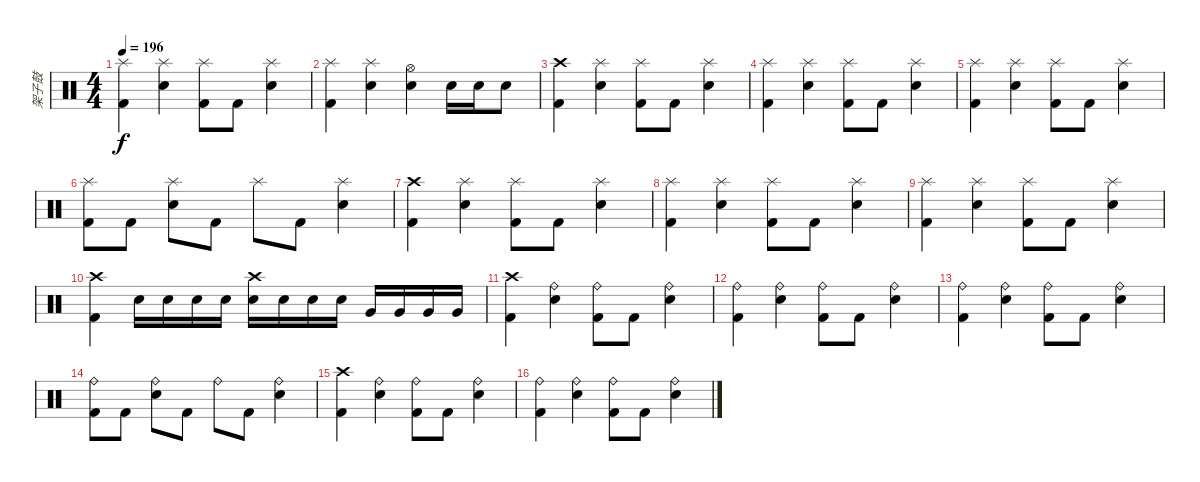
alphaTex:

\track ("架子鼓" "架子鼓") {instrument percussion}
\staff {score}
\articulation defaults
\ts (4 4)
\tempo 196
\clef neutral
\ks c
("Splash (hit)" "Kick (hit) 2").4{dy f} ("Splash (hit)" "Snare (hit) 2").4 ("Splash (hit)" "Kick (hit) 2").8 "Kick (hit) 2".8 ("Splash (hit)" "Snare (hit) 2").4 |
("Splash (hit)" "Kick (hit) 2").4 ("Splash (hit)" "Snare (hit) 2").4 ("Hi-Hat (open)" "Snare (hit) 2").4 "Snare (hit) 2".16 "Snare (hit) 2".16 "Snare (hit) 2".8 |
("Crash high (hit)" "Kick (hit) 2").4 ("Splash (hit)" "Snare (hit) 2").4 ("Splash (hit)" "Kick (hit) 2").8 "Kick (hit) 2".8 ("Splash (hit)" "Snare (hit) 2").4 |
("Splash (hit)" "Kick (hit) 2").4 ("Splash (hit)" "Snare (hit) 2").4 ("Splash (hit)" "Kick (hit) 2").8 "Kick (hit) 2".8 ("Splash (hit)" "Snare (hit) 2").4 |
("Splash (hit)" "Kick (hit) 2").4 ("Splash (hit)" "Snare (hit) 2").4 ("Splash (hit)" "Kick (hit) 2").8 "Kick (hit) 2".8 ("Splash (hit)" "Snare (hit) 2").4 |
("Splash (hit)" "Kick (hit) 2").8 "Kick (hit) 2".8 ("Splash (hit)" "Snare (hit) 2").8 "Kick (hit) 2".8 "Splash (hit)".8 "Kick (hit) 2".8 ("Splash (hit)" "Snare (hit) 2").4 |
("Crash high (hit)" "Kick (hit) 2").4 ("Splash (hit)" "Snare (hit) 2").4 ("Splash (hit)" "Kick (hit) 2").8 "Kick (hit) 2".8 ("Splash (hit)" "Snare (hit) 2").4 |
("Splash (hit)" "Kick (hit) 2").4 ("Splash (hit)" "Snare (hit) 2").4 ("Splash (hit)" "Kick (hit) 2").8 "Kick (hit) 2".8 ("Splash (hit)" "Snare (hit) 2").4 |
("Splash (hit)" "Kick (hit) 2").4 ("Splash (hit)" "Snare (hit) 2").4 ("Splash (hit)" "Kick (hit) 2").8 "Kick (hit) 2".8 ("Splash (hit)" "Snare (hit) 2").4 |
("Crash high (hit)" "Kick (hit) 2").4 "Snare (hit) 2".16 "Snare (hit) 2".16 "Snare (hit) 2".16 "Snare (hit) 2".16 ("Crash high (hit)" "Electric Snare (hit)").16 "Electric Snare (hit)".16 "Electric Snare (hit)".16 "Electric Snare (hit)".16 "Very Low Tom (hit)".16 "Very Low Tom (hit)".16 "Very Low Tom (hit)".16 "Very Low Tom (hit)".16 |
("Crash high (hit)" "Kick (hit) 2").4 ("Ride (bell)" "Snare (hit) 2").4 ("Ride (bell)" "Kick (hit) 2").8 "Kick (hit) 2".8 ("Ride (bell)" "Snare (hit) 2").4 |
("Ride (bell)" "Kick (hit) 2").4 ("Ride (bell)" "Snare (hit) 2").4 ("Ride (bell)" "Kick (hit) 2").8 "Kick (hit) 2".8 ("Ride (bell)" "Snare (hit) 2").4 |
("Ride (bell)" "Kick (hit) 2").4 ("Ride (bell)" "Snare (hit) 2").4 ("Ride (bell)" "Kick (hit) 2").8 "Kick (hit) 2".8 ("Ride (bell)" "Snare (hit) 2").4 |
("Ride (bell)" "Kick (hit) 2").8 "Kick (hit) 2".8 ("Ride (bell)" "Snare (hit) 2").8 "Kick (hit) 2".8 "Ride (bell)".8 "Kick (hit) 2".8 ("Ride (bell)" "Snare (hit) 2").4 |
("Crash high (hit)" "Kick (hit) 2").4 ("Ride (bell)" "Snare (hit) 2").4 ("Ride (bell)" "Kick (hit) 2").8 "Kick (hit) 2".8 ("Ride (bell)" "Snare (hit) 2").4 |
("Ride (bell)" "Kick (hit) 2").4 ("Ride (bell)" "Snare (hit) 2").4 ("Ride (bell)" "Kick (hit) 2").8 "Kick (hit) 2".8 ("Ride (bell)" "Snare (hit) 2").4
